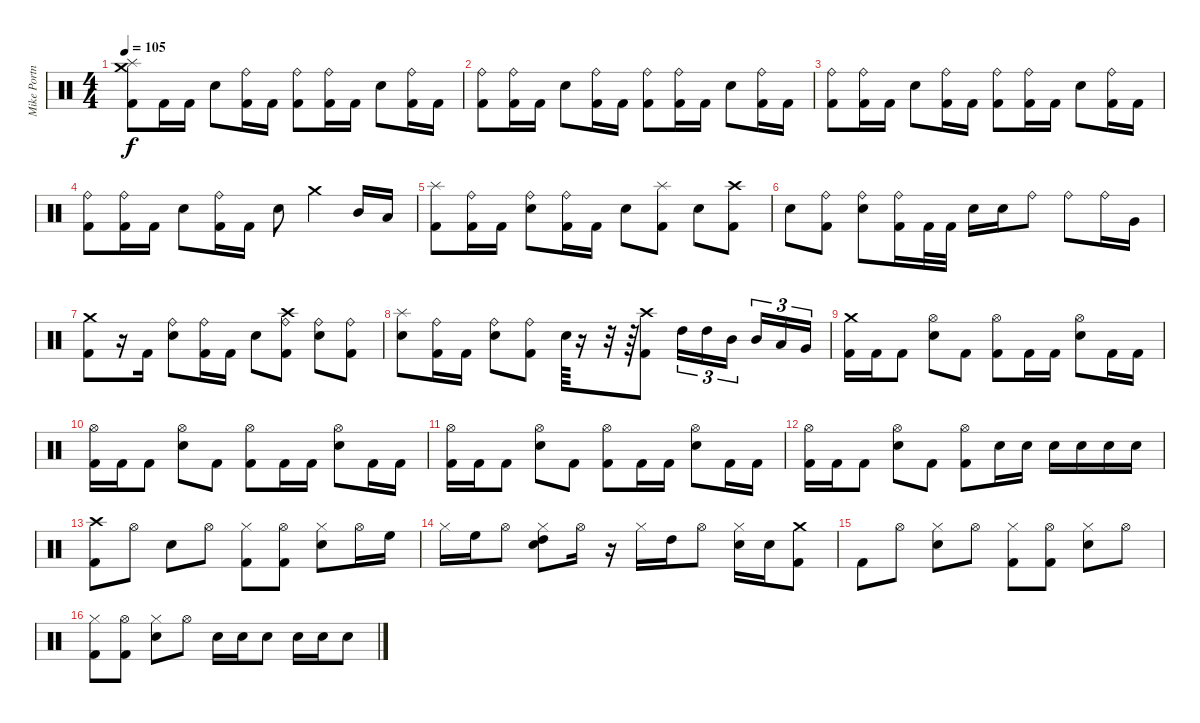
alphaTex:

\track ("Mike Portnoy" "Mike Portn") {instrument percussion}
\staff {score}
\articulation defaults
\ts (4 4)
\tempo 105
\clef neutral
\ks c
("Crash medium (hit)" "Splash (hit)" "Kick (hit) 2").8{dy f} "Kick (hit) 2".16 "Kick (hit) 2".16 "Electric Snare (hit)".8 ("Ride (bell)" "Kick (hit) 2").16 "Kick (hit) 2".16 ("Ride (bell)" "Kick (hit) 2").8 ("Ride (bell)" "Kick (hit) 2").16 "Kick (hit) 2".16 "Electric Snare (hit)".8 ("Ride (bell)" "Kick (hit) 2").16 "Kick (hit) 2".16 |
("Ride (bell)" "Kick (hit) 2").8 ("Ride (bell)" "Kick (hit) 2").16 "Kick (hit) 2".16 "Electric Snare (hit)".8 ("Ride (bell)" "Kick (hit) 2").16 "Kick (hit) 2".16 ("Ride (bell)" "Kick (hit) 2").8 ("Ride (bell)" "Kick (hit) 2").16 "Kick (hit) 2".16 "Electric Snare (hit)".8 ("Ride (bell)" "Kick (hit) 2").16 "Kick (hit) 2".16 |
("Ride (bell)" "Kick (hit) 2").8 ("Ride (bell)" "Kick (hit) 2").16 "Kick (hit) 2".16 "Electric Snare (hit)".8 ("Ride (bell)" "Kick (hit) 2").16 "Kick (hit) 2".16 ("Ride (bell)" "Kick (hit) 2").8 ("Ride (bell)" "Kick (hit) 2").16 "Kick (hit) 2".16 "Electric Snare (hit)".8 ("Ride (bell)" "Kick (hit) 2").16 "Kick (hit) 2".16 |
("Ride (bell)" "Kick (hit) 2").8 ("Ride (bell)" "Kick (hit) 2").16 "Kick (hit) 2".16 "Electric Snare (hit)".8 ("Ride (bell)" "Kick (hit) 2").16 "Kick (hit) 2".16 "Electric Snare (hit)".8 "Crash medium (hit)".4 "Mid Tom (hit)".16 "Low Tom (hit)".16 |
("Splash (hit)" "Kick (hit) 2").8 ("Ride (bell)" "Kick (hit) 2").16 "Kick (hit) 2".16 ("Ride (bell)" "Electric Snare (hit)").8 ("Ride (bell)" "Kick (hit) 2").16 "Kick (hit) 2".16 "Electric Snare (hit)".8 ("Splash (hit)" "Kick (hit) 2").8 "Electric Snare (hit)".8 ("Crash high (hit)" "Kick (hit) 2").8 |
"Electric Snare (hit)".8 ("Ride (bell)" "Kick (hit) 2").8 ("Ride (bell)" "Electric Snare (hit)").8 ("Ride (bell)" "Kick (hit) 2").16 "Kick (hit) 2".32 "Kick (hit) 2".32 "Electric Snare (hit)".16 "Electric Snare (hit)".16 "Ride (bell)".8 "Ride (bell)".8 "Ride (bell)".16 "Very Low Tom (hit)".16 |
("Crash medium (hit)" "Kick (hit) 2").8 r.16 "Kick (hit) 2".16 ("Ride (bell)" "Electric Snare (hit)").8 ("Ride (bell)" "Kick (hit) 2").16 "Kick (hit) 2".16 "Electric Snare (hit)".8 ("Ride (bell)" "Crash high (hit)" "Kick (hit) 2").8 ("Ride (bell)" "Electric Snare (hit)").8 ("Ride (bell)" "Kick (hit) 2").8 |
("Splash (hit)" "Electric Snare (hit)").8 ("Ride (bell)" "Kick (hit) 2").16 "Kick (hit) 2".16 ("Ride (bell)" "Electric Snare (hit)").8 ("Ride (bell)" "Kick (hit) 2").8 "Electric Snare (hit)".64 r.16 r.32 r.64 ("Crash high (hit)" "Kick (hit) 2").8 "High Tom (hit)".16{tu (3 2)} "High Tom (hit)".16{tu (3 2)} "Mid Tom (hit)".16{tu (3 2)} "Mid Tom (hit)".16{tu (3 2)} "Low Tom (hit)".16{tu (3 2)} "Very Low Tom (hit)".16{tu (3 2)} |
("Crash medium (hit)" "Kick (hit) 2").16 "Kick (hit) 2".16 "Kick (hit) 2".8 ("Hi-Hat (open)" "Electric Snare (hit)").8 "Kick (hit) 2".8 ("Hi-Hat (open)" "Kick (hit) 2").8 "Kick (hit) 2".16 "Kick (hit) 2".16 ("Hi-Hat (open)" "Electric Snare (hit)").8 "Kick (hit) 2".16 "Kick (hit) 2".16 |
("Hi-Hat (open)" "Kick (hit) 2").16 "Kick (hit) 2".16 "Kick (hit) 2".8 ("Hi-Hat (open)" "Electric Snare (hit)").8 "Kick (hit) 2".8 ("Hi-Hat (open)" "Kick (hit) 2").8 "Kick (hit) 2".16 "Kick (hit) 2".16 ("Hi-Hat (open)" "Electric Snare (hit)").8 "Kick (hit) 2".16 "Kick (hit) 2".16 |
("Hi-Hat (open)" "Kick (hit) 2").16 "Kick (hit) 2".16 "Kick (hit) 2".8 ("Hi-Hat (open)" "Electric Snare (hit)").8 "Kick (hit) 2".8 ("Hi-Hat (open)" "Kick (hit) 2").8 "Kick (hit) 2".16 "Kick (hit) 2".16 ("Hi-Hat (open)" "Electric Snare (hit)").8 "Kick (hit) 2".16 "Kick (hit) 2".16 |
("Hi-Hat (open)" "Kick (hit) 2").16 "Kick (hit) 2".16 "Kick (hit) 2".8 ("Hi-Hat (open)" "Electric Snare (hit)").8 "Kick (hit) 2".8 ("Hi-Hat (open)" "Kick (hit) 2").8 "Electric Snare (hit)".16 "Electric Snare (hit)".16 "Electric Snare (hit)".16 "Electric Snare (hit)".16 "Electric Snare (hit)".16 "Electric Snare (hit)".16 |
("Crash high (hit)" "Kick (hit) 2").8 "Hi-Hat (open)".8 "Electric Snare (hit)".8 "Hi-Hat (open)".8 ("Hi-Hat (closed)" "Kick (hit) 2").8 ("Hi-Hat (open)" "Kick (hit) 2").8 ("Hi-Hat (closed)" "Electric Snare (hit)").8 "Hi-Hat (open)".16 "High Floor Tom (hit)".16 |
"Hi-Hat (closed)".16 "High Floor Tom (hit)".16 "Hi-Hat (open)".8 ("Hi-Hat (closed)" "High Tom (hit)" "Electric Snare (hit)").8 "Hi-Hat (open)".16 r.16 "Hi-Hat (closed)".16 "High Tom (hit)".16 "Hi-Hat (open)".8 ("Hi-Hat (closed)" "Electric Snare (hit)").16 "Electric Snare (hit)".16 ("Crash medium (hit)" "Kick (hit) 2").8 |
"Kick (hit) 2".8 "Hi-Hat (open)".8 ("Hi-Hat (closed)" "Electric Snare (hit)").8 "Hi-Hat (open)".8 ("Hi-Hat (closed)" "Kick (hit) 2").8 ("Hi-Hat (open)" "Kick (hit) 2").8 ("Hi-Hat (closed)" "Electric Snare (hit)").8 "Hi-Hat (open)".8 |
("Hi-Hat (closed)" "Kick (hit) 2").8 ("Hi-Hat (open)" "Kick (hit) 2").8 ("Hi-Hat (closed)" "Electric Snare (hit)").8 "Hi-Hat (open)".8 "Electric Snare (hit)".16 "Electric Snare (hit)".16 "Electric Snare (hit)".8 "Electric Snare (hit)".16 "Electric Snare (hit)".16 "Electric Snare (hit)".8
